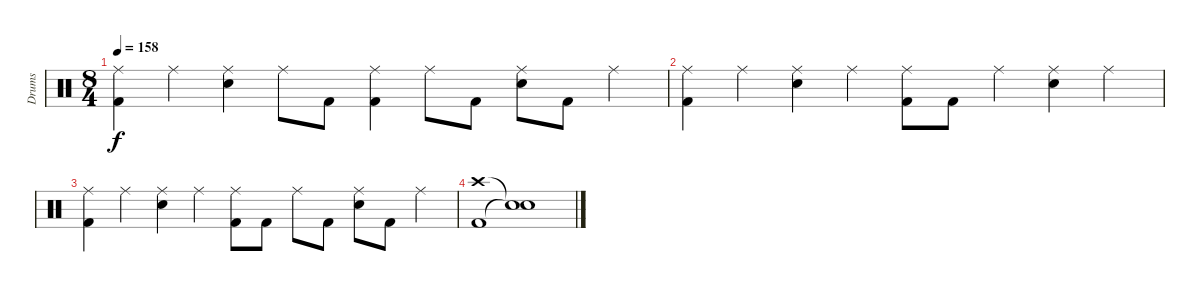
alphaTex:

\track ("Drums" "Drums") {instrument percussion}
\staff {score}
\articulation defaults
\ts (8 4)
\tempo 158
\clef neutral
\ks c
("Ride (middle)" "Kick (hit) 2").4{dy f} "Ride (middle)".4 ("Ride (middle)" "Snare (hit) 2").4 "Ride (middle)".8 "Kick (hit) 2".8 ("Ride (middle)" "Kick (hit) 2").4 "Ride (middle)".8 "Kick (hit) 2".8 ("Ride (middle)" "Snare (hit) 2").8 "Kick (hit) 2".8 "Ride (middle)".4 |
("Ride (middle)" "Kick (hit) 2").4 "Ride (middle)".4 ("Ride (middle)" "Snare (hit) 2").4 "Ride (middle)".4 ("Ride (middle)" "Kick (hit) 2").8 "Kick (hit) 2".8 "Ride (middle)".4 ("Ride (middle)" "Snare (hit) 2").4 "Ride (middle)".4 |
("Ride (middle)" "Kick (hit) 2").4 "Ride (middle)".4 ("Ride (middle)" "Snare (hit) 2").4 "Ride (middle)".4 ("Ride (middle)" "Kick (hit) 2").8 "Kick (hit) 2".8 "Ride (middle)".8 "Kick (hit) 2".8 ("Ride (middle)" "Snare (hit) 2").8 "Kick (hit) 2".8 "Ride (middle)".4 |
("Crash high (hit)" "Kick (hit) 2").1 ("Snare (hit)"{t} "Snare (hit)"{t}).1
